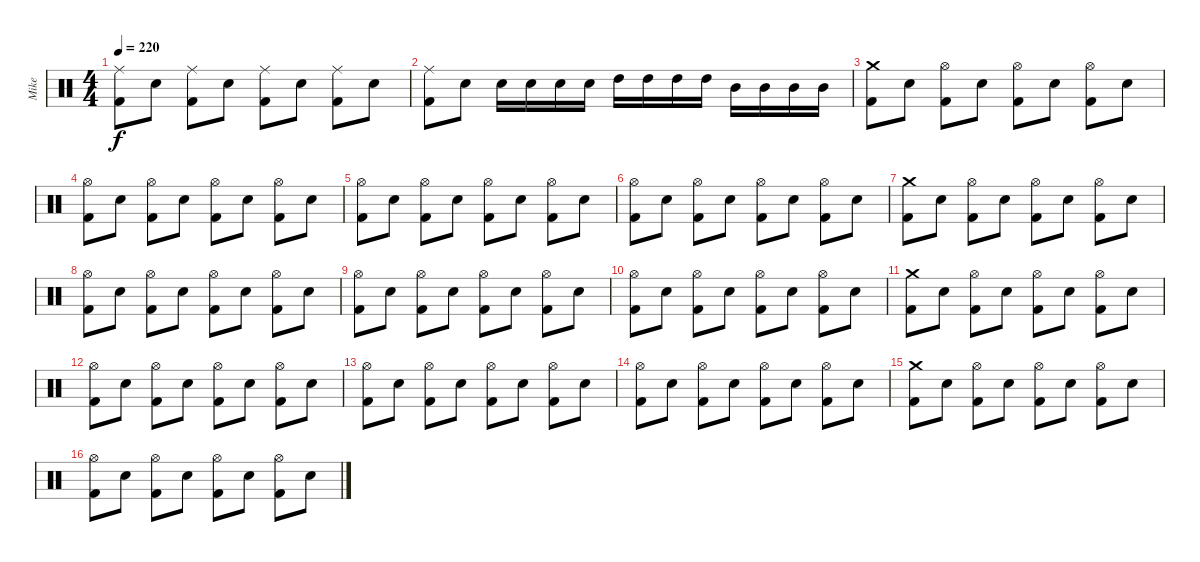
\track ("Mike" "Mike") {instrument percussion}
\staff {score}
\articulation defaults
\ts (4 4)
\tempo 220
\clef neutral
\ks c
("Ride (middle)" "Kick (hit) 2").8{dy f} "Electric Snare (hit)".8 ("Ride (middle)" "Kick (hit) 2").8 "Electric Snare (hit)".8 ("Ride (middle)" "Kick (hit) 2").8 "Electric Snare (hit)".8 ("Ride (middle)" "Kick (hit) 2").8 "Electric Snare (hit)".8 |
("Ride (middle)" "Kick (hit) 2").8 "Electric Snare (hit)".8 "Electric Snare (hit)".16 "Electric Snare (hit)".16 "Electric Snare (hit)".16 "Electric Snare (hit)".16 "High Tom (hit)".16 "High Tom (hit)".16 "High Tom (hit)".16 "High Tom (hit)".16 "Mid Tom (hit)".16 "Mid Tom (hit)".16 "Mid Tom (hit)".16 "Mid Tom (hit)".16 |
("Crash medium (hit)" "Kick (hit) 2").8 "Electric Snare (hit)".8 ("Hi-Hat (open)" "Kick (hit) 2").8 "Electric Snare (hit)".8 ("Hi-Hat (open)" "Kick (hit) 2").8 "Electric Snare (hit)".8 ("Hi-Hat (open)" "Kick (hit) 2").8 "Electric Snare (hit)".8 |
("Hi-Hat (open)" "Kick (hit) 2").8 "Electric Snare (hit)".8 ("Hi-Hat (open)" "Kick (hit) 2").8 "Electric Snare (hit)".8 ("Hi-Hat (open)" "Kick (hit) 2").8 "Electric Snare (hit)".8 ("Hi-Hat (open)" "Kick (hit) 2").8 "Electric Snare (hit)".8 |
("Hi-Hat (open)" "Kick (hit) 2").8 "Electric Snare (hit)".8 ("Hi-Hat (open)" "Kick (hit) 2").8 "Electric Snare (hit)".8 ("Hi-Hat (open)" "Kick (hit) 2").8 "Electric Snare (hit)".8 ("Hi-Hat (open)" "Kick (hit) 2").8 "Electric Snare (hit)".8 |
("Hi-Hat (open)" "Kick (hit) 2").8 "Electric Snare (hit)".8 ("Hi-Hat (open)" "Kick (hit) 2").8 "Electric Snare (hit)".8 ("Hi-Hat (open)" "Kick (hit) 2").8 "Electric Snare (hit)".8 ("Hi-Hat (open)" "Kick (hit) 2").8 "Electric Snare (hit)".8 |
("Crash medium (hit)" "Kick (hit) 2").8 "Electric Snare (hit)".8 ("Hi-Hat (open)" "Kick (hit) 2").8 "Electric Snare (hit)".8 ("Hi-Hat (open)" "Kick (hit) 2").8 "Electric Snare (hit)".8 ("Hi-Hat (open)" "Kick (hit) 2").8 "Electric Snare (hit)".8 |
("Hi-Hat (open)" "Kick (hit) 2").8 "Electric Snare (hit)".8 ("Hi-Hat (open)" "Kick (hit) 2").8 "Electric Snare (hit)".8 ("Hi-Hat (open)" "Kick (hit) 2").8 "Electric Snare (hit)".8 ("Hi-Hat (open)" "Kick (hit) 2").8 "Electric Snare (hit)".8 |
("Hi-Hat (open)" "Kick (hit) 2").8 "Electric Snare (hit)".8 ("Hi-Hat (open)" "Kick (hit) 2").8 "Electric Snare (hit)".8 ("Hi-Hat (open)" "Kick (hit) 2").8 "Electric Snare (hit)".8 ("Hi-Hat (open)" "Kick (hit) 2").8 "Electric Snare (hit)".8 |
("Hi-Hat (open)" "Kick (hit) 2").8 "Electric Snare (hit)".8 ("Hi-Hat (open)" "Kick (hit) 2").8 "Electric Snare (hit)".8 ("Hi-Hat (open)" "Kick (hit) 2").8 "Electric Snare (hit)".8 ("Hi-Hat (open)" "Kick (hit) 2").8 "Electric Snare (hit)".8 |
("Crash medium (hit)" "Kick (hit) 2").8 "Electric Snare (hit)".8 ("Hi-Hat (open)" "Kick (hit) 2").8 "Electric Snare (hit)".8 ("Hi-Hat (open)" "Kick (hit) 2").8 "Electric Snare (hit)".8 ("Hi-Hat (open)" "Kick (hit) 2").8 "Electric Snare (hit)".8 |
("Hi-Hat (open)" "Kick (hit) 2").8 "Electric Snare (hit)".8 ("Hi-Hat (open)" "Kick (hit) 2").8 "Electric Snare (hit)".8 ("Hi-Hat (open)" "Kick (hit) 2").8 "Electric Snare (hit)".8 ("Hi-Hat (open)" "Kick (hit) 2").8 "Electric Snare (hit)".8 |
("Hi-Hat (open)" "Kick (hit) 2").8 "Electric Snare (hit)".8 ("Hi-Hat (open)" "Kick (hit) 2").8 "Electric Snare (hit)".8 ("Hi-Hat (open)" "Kick (hit) 2").8 "Electric Snare (hit)".8 ("Hi-Hat (open)" "Kick (hit) 2").8 "Electric Snare (hit)".8 |
("Hi-Hat (open)" "Kick (hit) 2").8 "Electric Snare (hit)".8 ("Hi-Hat (open)" "Kick (hit) 2").8 "Electric Snare (hit)".8 ("Hi-Hat (open)" "Kick (hit) 2").8 "Electric Snare (hit)".8 ("Hi-Hat (open)" "Kick (hit) 2").8 "Electric Snare (hit)".8 |
("Crash medium (hit)" "Kick (hit) 2").8 "Electric Snare (hit)".8 ("Hi-Hat (open)" "Kick (hit) 2").8 "Electric Snare (hit)".8 ("Hi-Hat (open)" "Kick (hit) 2").8 "Electric Snare (hit)".8 ("Hi-Hat (open)" "Kick (hit) 2").8 "Electric Snare (hit)".8 |
("Hi-Hat (open)" "Kick (hit) 2").8 "Electric Snare (hit)".8 ("Hi-Hat (open)" "Kick (hit) 2").8 "Electric Snare (hit)".8 ("Hi-Hat (open)" "Kick (hit) 2").8 "Electric Snare (hit)".8 ("Hi-Hat (open)" "Kick (hit) 2").8 "Electric Snare (hit)".8
